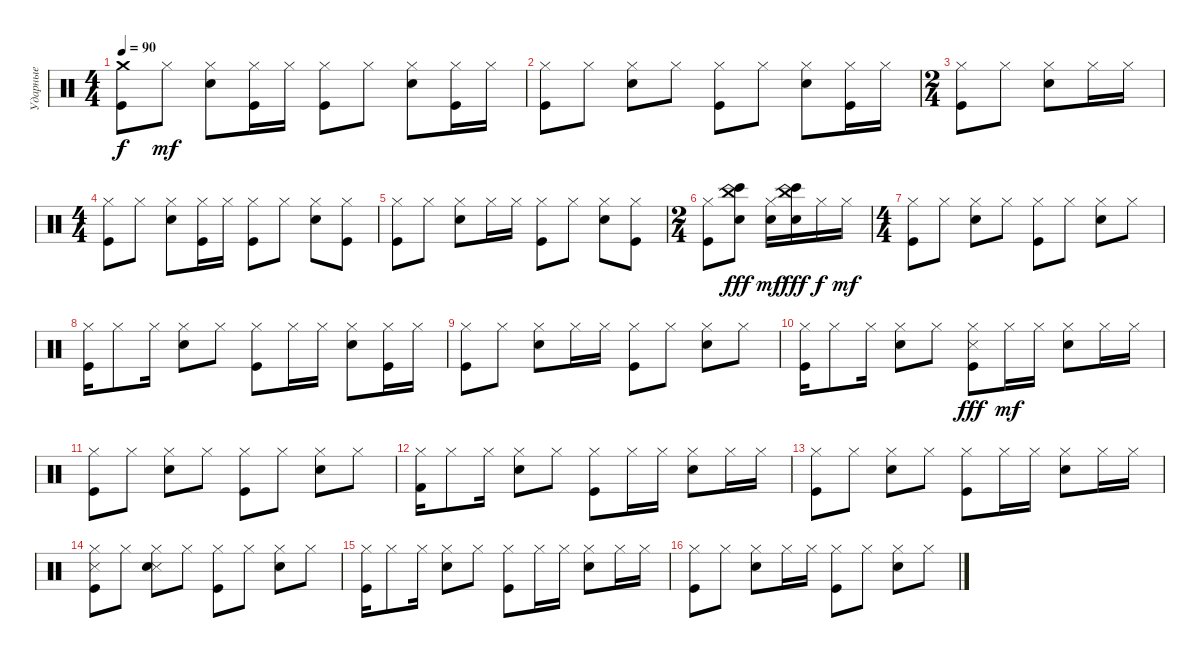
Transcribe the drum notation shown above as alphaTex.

\track ("Ударные" "Ударные") {instrument percussion}
\staff {score}
\articulation defaults
\ts (4 4)
\tempo 90
\clef neutral
\ks c
("Crash medium (hit)" "Kick (hit)").8{dy f} "Hi-Hat (closed)".8{dy mf} ("Hi-Hat (closed)" "Snare (hit) 2").8 ("Hi-Hat (closed)" "Kick (hit)").16 "Hi-Hat (closed)".16 ("Hi-Hat (closed)" "Kick (hit)").8 "Hi-Hat (closed)".8 ("Hi-Hat (closed)" "Snare (hit) 2").8 ("Hi-Hat (closed)" "Kick (hit)").16 "Hi-Hat (closed)".16 |
("Kick (hit)" "Hi-Hat (closed)").8 "Hi-Hat (closed)".8 ("Hi-Hat (closed)" "Snare (hit) 2").8 "Hi-Hat (closed)".8 ("Hi-Hat (closed)" "Kick (hit)").8 "Hi-Hat (closed)".8 ("Hi-Hat (closed)" "Snare (hit) 2").8 ("Hi-Hat (closed)" "Kick (hit)").16 "Hi-Hat (closed)".16 |
\ts (2 4)
("Hi-Hat (closed)" "Kick (hit)").8 "Hi-Hat (closed)".8 ("Hi-Hat (closed)" "Snare (hit) 2").8 "Hi-Hat (closed)".16 "Hi-Hat (closed)".16 |
\ts (4 4)
("Hi-Hat (closed)" "Kick (hit)").8 "Hi-Hat (closed)".8 ("Hi-Hat (closed)" "Snare (hit) 2").8 ("Hi-Hat (closed)" "Kick (hit)").16 "Hi-Hat (closed)".16 ("Hi-Hat (closed)" "Kick (hit)").8 "Hi-Hat (closed)".8 ("Hi-Hat (closed)" "Snare (hit) 2").8 ("Hi-Hat (closed)" "Kick (hit)").8 |
("Kick (hit)" "Hi-Hat (closed)").8 "Hi-Hat (closed)".8 ("Hi-Hat (closed)" "Snare (hit) 2").8 "Hi-Hat (closed)".16 "Hi-Hat (closed)".16 ("Kick (hit)" "Hi-Hat (closed)").8 "Hi-Hat (closed)".8 ("Hi-Hat (closed)" "Snare (hit) 2").8 ("Hi-Hat (closed)" "Kick (hit)").8 |
\ts (2 4)
("Hi-Hat (closed)" "Kick (hit)").8 ("China (hit)" "Bongo High (hit)" "Hand Clap (hit)").8{dy fff} ("Hi-Hat (closed)" "Snare (hit) 2").16{dy mf} ("China (hit)" "Bongo High (hit)" "Hand Clap (hit)").16{dy fff} "Hi-Hat (closed)".16{dy f} "Hi-Hat (closed)".16{dy mf} |
\ts (4 4)
("Hi-Hat (closed)" "Kick (hit)").8 "Hi-Hat (closed)".8 ("Hi-Hat (closed)" "Snare (hit) 2").8 "Hi-Hat (closed)".8 ("Hi-Hat (closed)" "Kick (hit)").8 "Hi-Hat (closed)".8 ("Hi-Hat (closed)" "Snare (hit) 2").8 "Hi-Hat (closed)".8 |
("Hi-Hat (closed)" "Kick (hit)").16 "Hi-Hat (closed)".8 "Hi-Hat (closed)".16 ("Hi-Hat (closed)" "Snare (hit) 2").8 "Hi-Hat (closed)".8 ("Hi-Hat (closed)" "Kick (hit)").8 "Hi-Hat (closed)".16 "Hi-Hat (closed)".16 ("Hi-Hat (closed)" "Snare (hit) 2").8 ("Hi-Hat (closed)" "Kick (hit)").16 "Hi-Hat (closed)".16 |
("Hi-Hat (closed)" "Kick (hit)").8 "Hi-Hat (closed)".8 ("Hi-Hat (closed)" "Snare (hit) 2").8 "Hi-Hat (closed)".16 "Hi-Hat (closed)".16 ("Hi-Hat (closed)" "Kick (hit)").8 "Hi-Hat (closed)".8 ("Hi-Hat (closed)" "Snare (hit) 2").8 "Hi-Hat (closed)".8 |
("Hi-Hat (closed)" "Kick (hit)").16 "Hi-Hat (closed)".8 "Hi-Hat (closed)".16 ("Hi-Hat (closed)" "Snare (hit) 2").8 "Hi-Hat (closed)".8 ("Hi-Hat (closed)" "Snare (side stick) 3" "Kick (hit)").8{dy fff} "Hi-Hat (closed)".16{dy mf} "Hi-Hat (closed)".16 ("Hi-Hat (closed)" "Snare (hit) 2").8 "Hi-Hat (closed)".16 "Hi-Hat (closed)".16 |
("Hi-Hat (closed)" "Kick (hit)").8 "Hi-Hat (closed)".8 ("Hi-Hat (closed)" "Snare (hit) 2").8 "Hi-Hat (closed)".8 ("Hi-Hat (closed)" "Kick (hit)").8 "Hi-Hat (closed)".8 ("Hi-Hat (closed)" "Snare (hit) 2").8 "Hi-Hat (closed)".8 |
("Hi-Hat (closed)" "Kick (hit) 2").16 "Hi-Hat (closed)".8 "Hi-Hat (closed)".16 ("Hi-Hat (closed)" "Snare (hit) 2").8 "Hi-Hat (closed)".8 ("Hi-Hat (closed)" "Kick (hit)").8 "Hi-Hat (closed)".16 "Hi-Hat (closed)".16 ("Hi-Hat (closed)" "Snare (hit) 2").8 "Hi-Hat (closed)".16 "Hi-Hat (closed)".16 |
("Hi-Hat (closed)" "Kick (hit)").8 "Hi-Hat (closed)".8 ("Hi-Hat (closed)" "Snare (hit) 2").8 "Hi-Hat (closed)".8 ("Hi-Hat (closed)" "Kick (hit)").8 "Hi-Hat (closed)".16 "Hi-Hat (closed)".16 ("Hi-Hat (closed)" "Snare (hit) 2").8 "Hi-Hat (closed)".16 "Hi-Hat (closed)".16 |
("Hi-Hat (closed)" "Snare (side stick) 3" "Kick (hit)").8 "Hi-Hat (closed)".8 ("Hi-Hat (closed)" "Snare (side stick) 3" "Snare (hit) 2").8 "Hi-Hat (closed)".8 ("Hi-Hat (closed)" "Kick (hit)").8 "Hi-Hat (closed)".8 ("Hi-Hat (closed)" "Snare (hit) 2").8 "Hi-Hat (closed)".8 |
("Hi-Hat (closed)" "Kick (hit)").16 "Hi-Hat (closed)".8 "Hi-Hat (closed)".16 ("Hi-Hat (closed)" "Snare (hit) 2").8 "Hi-Hat (closed)".8 ("Hi-Hat (closed)" "Kick (hit)").8 "Hi-Hat (closed)".16 "Hi-Hat (closed)".16 ("Hi-Hat (closed)" "Snare (hit) 2").8 "Hi-Hat (closed)".16 "Hi-Hat (closed)".16 |
("Hi-Hat (closed)" "Kick (hit)").8 "Hi-Hat (closed)".8 ("Hi-Hat (closed)" "Snare (hit) 2").8 "Hi-Hat (closed)".16 "Hi-Hat (closed)".16 ("Hi-Hat (closed)" "Kick (hit)").8 "Hi-Hat (closed)".8 ("Hi-Hat (closed)" "Snare (hit) 2").8 "Hi-Hat (closed)".8
